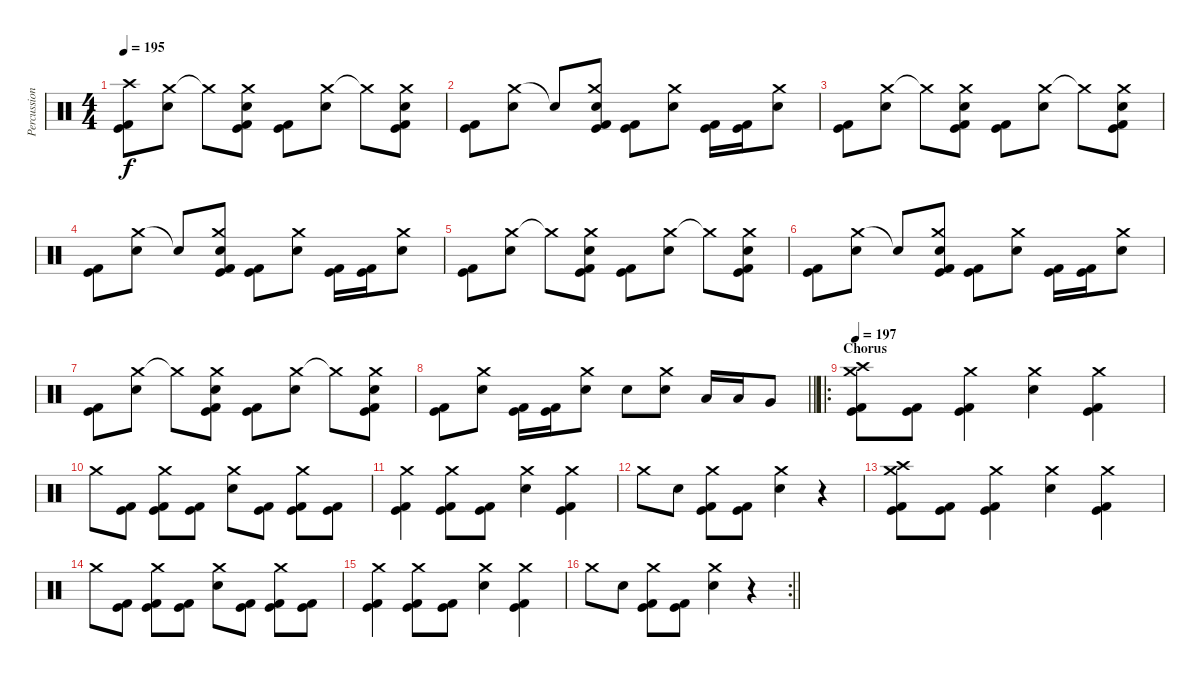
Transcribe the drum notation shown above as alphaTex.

\track ("Percussion" "Percussion") {instrument percussion}
\staff {score}
\articulation defaults
\ts (4 4)
\tempo 195
\clef neutral
\ks c
("Crash high (hit)" "Kick (hit)" "Kick (hit) 2").8{dy f} ("Crash medium (hit)" "Electric Snare (hit)").8 "Crash medium (hit)"{t}.8 ("Crash medium (hit)" "Electric Snare (hit)" "Kick (hit)" "Kick (hit) 2").8 ("Kick (hit)" "Kick (hit) 2").8 ("Crash medium (hit)" "Electric Snare (hit)").8 "Crash medium (hit)"{t}.8 ("Crash medium (hit)" "Electric Snare (hit)" "Kick (hit)" "Kick (hit) 2").8 |
("Kick (hit)" "Kick (hit) 2").8 ("Crash medium (hit)" "Electric Snare (hit)").8 "Snare (hit)"{t}.8 ("Crash medium (hit)" "Electric Snare (hit)" "Kick (hit)" "Kick (hit) 2").8 ("Kick (hit)" "Kick (hit) 2").8 ("Crash medium (hit)" "Electric Snare (hit)").8 ("Kick (hit)" "Kick (hit) 2").16 ("Kick (hit)" "Kick (hit) 2").16 ("Crash medium (hit)" "Electric Snare (hit)").8 |
("Kick (hit)" "Kick (hit) 2").8 ("Crash medium (hit)" "Electric Snare (hit)").8 "Crash medium (hit)"{t}.8 ("Crash medium (hit)" "Electric Snare (hit)" "Kick (hit)" "Kick (hit) 2").8 ("Kick (hit)" "Kick (hit) 2").8 ("Crash medium (hit)" "Electric Snare (hit)").8 "Crash medium (hit)"{t}.8 ("Crash medium (hit)" "Electric Snare (hit)" "Kick (hit)" "Kick (hit) 2").8 |
("Kick (hit)" "Kick (hit) 2").8 ("Crash medium (hit)" "Electric Snare (hit)").8 "Snare (hit)"{t}.8 ("Crash medium (hit)" "Electric Snare (hit)" "Kick (hit)" "Kick (hit) 2").8 ("Kick (hit)" "Kick (hit) 2").8 ("Crash medium (hit)" "Electric Snare (hit)").8 ("Kick (hit)" "Kick (hit) 2").16 ("Kick (hit)" "Kick (hit) 2").16 ("Crash medium (hit)" "Electric Snare (hit)").8 |
("Kick (hit)" "Kick (hit) 2").8 ("Crash medium (hit)" "Electric Snare (hit)").8 "Crash medium (hit)"{t}.8 ("Crash medium (hit)" "Electric Snare (hit)" "Kick (hit)" "Kick (hit) 2").8 ("Kick (hit)" "Kick (hit) 2").8 ("Crash medium (hit)" "Electric Snare (hit)").8 "Crash medium (hit)"{t}.8 ("Crash medium (hit)" "Electric Snare (hit)" "Kick (hit)" "Kick (hit) 2").8 |
("Kick (hit)" "Kick (hit) 2").8 ("Crash medium (hit)" "Electric Snare (hit)").8 "Snare (hit)"{t}.8 ("Crash medium (hit)" "Electric Snare (hit)" "Kick (hit)" "Kick (hit) 2").8 ("Kick (hit)" "Kick (hit) 2").8 ("Crash medium (hit)" "Electric Snare (hit)").8 ("Kick (hit)" "Kick (hit) 2").16 ("Kick (hit)" "Kick (hit) 2").16 ("Crash medium (hit)" "Electric Snare (hit)").8 |
("Kick (hit)" "Kick (hit) 2").8 ("Crash medium (hit)" "Electric Snare (hit)").8 "Crash medium (hit)"{t}.8 ("Crash medium (hit)" "Electric Snare (hit)" "Kick (hit)" "Kick (hit) 2").8 ("Kick (hit)" "Kick (hit) 2").8 ("Crash medium (hit)" "Electric Snare (hit)").8 "Crash medium (hit)"{t}.8 ("Crash medium (hit)" "Electric Snare (hit)" "Kick (hit)" "Kick (hit) 2").8 |
\barLineRight lightlight
("Kick (hit)" "Kick (hit) 2").8 ("Crash medium (hit)" "Electric Snare (hit)").8 ("Kick (hit)" "Kick (hit) 2").16 ("Kick (hit)" "Kick (hit) 2").16 ("Crash medium (hit)" "Electric Snare (hit)").8 "Electric Snare (hit)".8 ("Crash medium (hit)" "Electric Snare (hit)").8 "Low Tom (hit)".16 "Low Tom (hit)".16 "Very Low Tom (hit)".8 |
\ro
\section ("" "Chorus")
\tempo 197
("Crash high (hit)" "Crash medium (hit)" "Kick (hit)" "Kick (hit) 2").8 ("Kick (hit)" "Kick (hit) 2").8 ("Crash medium (hit)" "Kick (hit)" "Kick (hit) 2").4 ("Crash medium (hit)" "Electric Snare (hit)").4 ("Crash medium (hit)" "Kick (hit)" "Kick (hit) 2").4 |
"Crash medium (hit)".8 ("Kick (hit)" "Kick (hit) 2").8 ("Crash medium (hit)" "Kick (hit)" "Kick (hit) 2").8 ("Kick (hit)" "Kick (hit) 2").8 ("Crash medium (hit)" "Electric Snare (hit)").8 ("Kick (hit)" "Kick (hit) 2").8 ("Crash medium (hit)" "Kick (hit)" "Kick (hit) 2").8 ("Kick (hit)" "Kick (hit) 2").8 |
("Crash medium (hit)" "Kick (hit)" "Kick (hit) 2").4 ("Crash medium (hit)" "Kick (hit)" "Kick (hit) 2").8 ("Kick (hit)" "Kick (hit) 2").8 ("Crash medium (hit)" "Electric Snare (hit)").4 ("Crash medium (hit)" "Kick (hit)" "Kick (hit) 2").4 |
"Crash medium (hit)".8 "Electric Snare (hit)".8 ("Crash medium (hit)" "Kick (hit)" "Kick (hit) 2").8 ("Kick (hit)" "Kick (hit) 2").8 ("Crash medium (hit)" "Electric Snare (hit)").4 r.4 |
("Crash high (hit)" "Crash medium (hit)" "Kick (hit)" "Kick (hit) 2").8 ("Kick (hit)" "Kick (hit) 2").8 ("Crash medium (hit)" "Kick (hit)" "Kick (hit) 2").4 ("Crash medium (hit)" "Electric Snare (hit)").4 ("Crash medium (hit)" "Kick (hit)" "Kick (hit) 2").4 |
"Crash medium (hit)".8 ("Kick (hit)" "Kick (hit) 2").8 ("Crash medium (hit)" "Kick (hit)" "Kick (hit) 2").8 ("Kick (hit)" "Kick (hit) 2").8 ("Crash medium (hit)" "Electric Snare (hit)").8 ("Kick (hit)" "Kick (hit) 2").8 ("Crash medium (hit)" "Kick (hit)" "Kick (hit) 2").8 ("Kick (hit)" "Kick (hit) 2").8 |
("Crash medium (hit)" "Kick (hit)" "Kick (hit) 2").4 ("Crash medium (hit)" "Kick (hit)" "Kick (hit) 2").8 ("Kick (hit)" "Kick (hit) 2").8 ("Crash medium (hit)" "Electric Snare (hit)").4 ("Crash medium (hit)" "Kick (hit)" "Kick (hit) 2").4 |
\rc 2
\barLineRight lightlight "Crash medium (hit)".8 "Electric Snare (hit)".8
("Crash medium (hit)" "Kick (hit)" "Kick (hit) 2").8 ("Kick (hit)" "Kick (hit) 2").8 ("Crash medium (hit)" "Electric Snare (hit)").4 r.4
